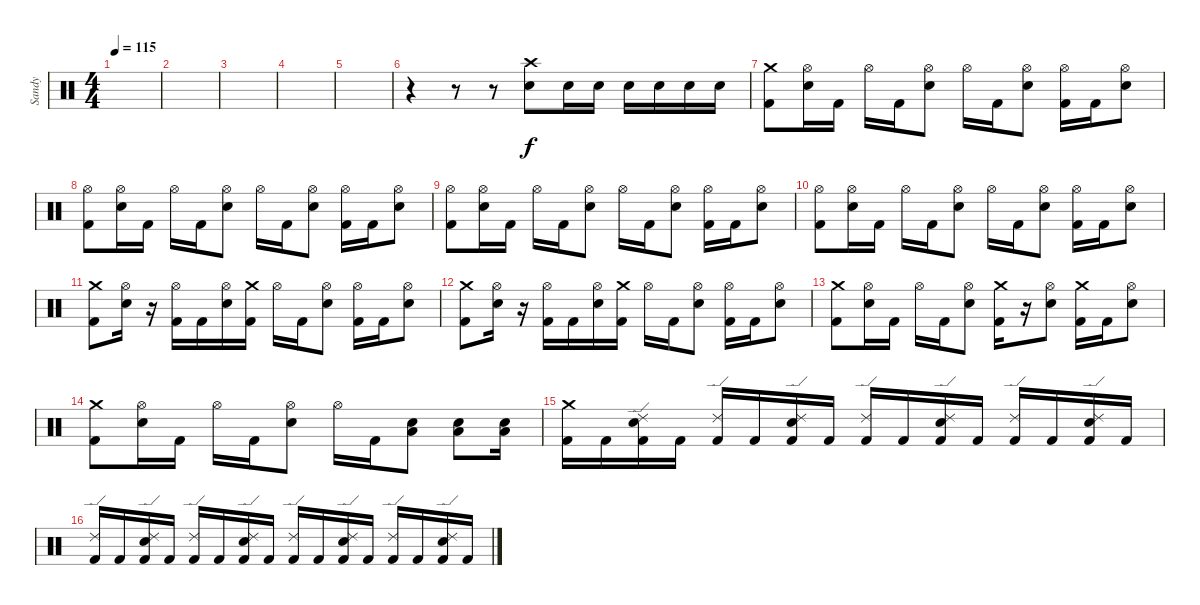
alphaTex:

\track ("Sandy" "Sandy") {instrument percussion}
\staff {score}
\articulation defaults
\ts (4 4)
\tempo 115
\clef neutral
\ks c
|
|
|
|
|
r.4 r.8 r.8 ("Crash high (hit)" "Snare (hit) 2").8 "Snare (hit) 2".16 "Snare (hit) 2".16 "Snare (hit) 2".16 "Snare (hit) 2".16 "Snare (hit) 2".16 "Snare (hit) 2".16 |
("Crash medium (hit)" "Kick (hit) 2").8 ("Hi-Hat (open)" "Snare (hit) 2").16 "Kick (hit) 2".16 "Hi-Hat (open)".16 "Kick (hit) 2".16 ("Hi-Hat (open)" "Snare (hit) 2").8 "Hi-Hat (open)".16 "Kick (hit) 2".16 ("Hi-Hat (open)" "Snare (hit) 2").8 ("Hi-Hat (open)" "Kick (hit) 2").16 "Kick (hit) 2".16 ("Hi-Hat (open)" "Snare (hit) 2").8 |
("Hi-Hat (open)" "Kick (hit) 2").8 ("Hi-Hat (open)" "Snare (hit) 2").16 "Kick (hit) 2".16 "Hi-Hat (open)".16 "Kick (hit) 2".16 ("Hi-Hat (open)" "Snare (hit) 2").8 "Hi-Hat (open)".16 "Kick (hit) 2".16 ("Hi-Hat (open)" "Snare (hit) 2").8 ("Hi-Hat (open)" "Kick (hit) 2").16 "Kick (hit) 2".16 ("Hi-Hat (open)" "Snare (hit) 2").8 |
("Hi-Hat (open)" "Kick (hit) 2").8 ("Hi-Hat (open)" "Snare (hit) 2").16 "Kick (hit) 2".16 "Hi-Hat (open)".16 "Kick (hit) 2".16 ("Hi-Hat (open)" "Snare (hit) 2").8 "Hi-Hat (open)".16 "Kick (hit) 2".16 ("Hi-Hat (open)" "Snare (hit) 2").8 ("Hi-Hat (open)" "Kick (hit) 2").16 "Kick (hit) 2".16 ("Hi-Hat (open)" "Snare (hit) 2").8 |
("Hi-Hat (open)" "Kick (hit) 2").8 ("Hi-Hat (open)" "Snare (hit) 2").16 "Kick (hit) 2".16 "Hi-Hat (open)".16 "Kick (hit) 2".16 ("Hi-Hat (open)" "Snare (hit) 2").8 "Hi-Hat (open)".16 "Kick (hit) 2".16 ("Hi-Hat (open)" "Snare (hit) 2").8 ("Hi-Hat (open)" "Kick (hit) 2").16 "Kick (hit) 2".16 ("Hi-Hat (open)" "Snare (hit) 2").8 |
("Crash medium (hit)" "Kick (hit) 2").8 ("Hi-Hat (open)" "Snare (hit) 2").16 r.16 ("Hi-Hat (open)" "Kick (hit) 2").16 "Kick (hit) 2".16 ("Hi-Hat (open)" "Snare (hit) 2").16 ("Crash medium (hit)" "Kick (hit) 2").16 "Hi-Hat (open)".16 "Kick (hit) 2".16 ("Hi-Hat (open)" "Snare (hit) 2").8 ("Hi-Hat (open)" "Kick (hit) 2").16 "Kick (hit) 2".16 ("Hi-Hat (open)" "Snare (hit) 2").8 |
("Crash medium (hit)" "Kick (hit) 2").8 ("Hi-Hat (open)" "Snare (hit) 2").16 r.16 ("Hi-Hat (open)" "Kick (hit) 2").16 "Kick (hit) 2".16 ("Hi-Hat (open)" "Snare (hit) 2").16 ("Crash medium (hit)" "Kick (hit) 2").16 "Hi-Hat (open)".16 "Kick (hit) 2".16 ("Hi-Hat (open)" "Snare (hit) 2").8 ("Hi-Hat (open)" "Kick (hit) 2").16 "Kick (hit) 2".16 ("Hi-Hat (open)" "Snare (hit) 2").8 |
("Crash medium (hit)" "Kick (hit) 2").8 ("Hi-Hat (open)" "Snare (hit) 2").16 "Kick (hit) 2".16 "Hi-Hat (open)".16 "Kick (hit) 2".16 ("Hi-Hat (open)" "Snare (hit) 2").8 ("Crash medium (hit)" "Kick (hit) 2").16 r.16 ("Hi-Hat (open)" "Snare (hit) 2").8 ("Crash medium (hit)" "Kick (hit) 2").16 "Kick (hit) 2".16 ("Hi-Hat (open)" "Snare (hit) 2").8 |
("Crash medium (hit)" "Kick (hit) 2").8 ("Hi-Hat (open)" "Snare (hit) 2").16 "Kick (hit) 2".16 "Hi-Hat (open)".16 "Kick (hit) 2".16 ("Hi-Hat (open)" "Snare (hit) 2").8 "Hi-Hat (open)".16 "Kick (hit) 2".16 ("Electric Snare (hit)" "Low Floor Tom (hit)").8 ("Electric Snare (hit)" "Low Floor Tom (hit)").8 ("Electric Snare (hit)" "Low Floor Tom (hit)").16 |
("Crash medium (hit)" "Kick (hit) 2").16 "Kick (hit) 2".16 ("Ride (edge) 2" "Snare (hit) 2" "Kick (hit) 2").16 "Kick (hit) 2".16 ("Ride (edge) 2" "Kick (hit) 2").16 "Kick (hit) 2".16 ("Ride (edge) 2" "Snare (hit) 2" "Kick (hit) 2").16 "Kick (hit) 2".16 ("Ride (edge) 2" "Kick (hit) 2").16 "Kick (hit) 2".16 ("Ride (edge) 2" "Snare (hit) 2" "Kick (hit) 2").16 "Kick (hit) 2".16 ("Ride (edge) 2" "Kick (hit) 2").16 "Kick (hit) 2".16 ("Ride (edge) 2" "Snare (hit) 2" "Kick (hit) 2").16 "Kick (hit) 2".16 |
("Ride (edge) 2" "Kick (hit) 2").16 "Kick (hit) 2".16 ("Ride (edge) 2" "Snare (hit) 2" "Kick (hit) 2").16 "Kick (hit) 2".16 ("Ride (edge) 2" "Kick (hit) 2").16 "Kick (hit) 2".16 ("Ride (edge) 2" "Snare (hit) 2" "Kick (hit) 2").16 "Kick (hit) 2".16 ("Ride (edge) 2" "Kick (hit) 2").16 "Kick (hit) 2".16 ("Ride (edge) 2" "Snare (hit) 2" "Kick (hit) 2").16 "Kick (hit) 2".16 ("Ride (edge) 2" "Kick (hit) 2").16 "Kick (hit) 2".16 ("Ride (edge) 2" "Snare (hit) 2" "Kick (hit) 2").16 "Kick (hit) 2".16
